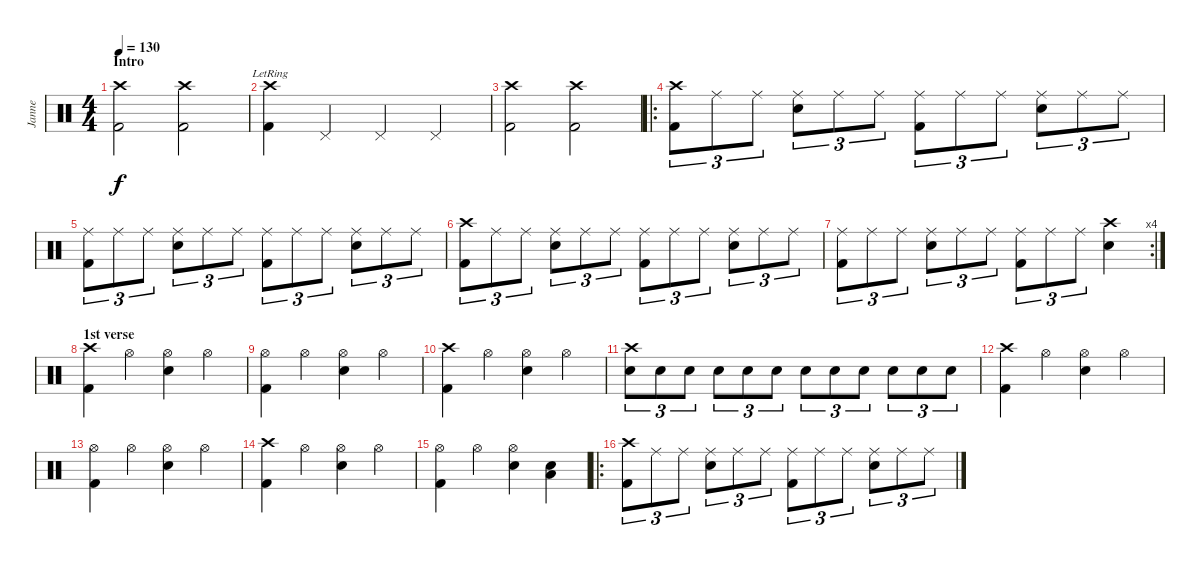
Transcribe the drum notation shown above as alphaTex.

\track ("Janne" "Janne") {instrument percussion}
\staff {score}
\articulation defaults
\ts (4 4)
\section ("" "Intro")
\tempo 130
\clef neutral
\ks c
("Crash high (hit)" "Kick (hit) 2").2{dy f} ("Crash high (hit)" "Kick (hit) 2").2 |
("Crash high (hit)"{lr} "Kick (hit) 2"{lr}).4 "Pedal Hi-Hat (hit)".4 "Pedal Hi-Hat (hit)".4 "Pedal Hi-Hat (hit)".4 |
("Crash high (hit)" "Kick (hit) 2").2 ("Crash high (hit)" "Kick (hit) 2").2 |
\ro
("Crash high (hit)" "Kick (hit) 2").8{tu (3 2)} "Ride (middle)".8{tu (3 2)} "Ride (middle)".8{tu (3 2)} ("Ride (middle)" "Electric Snare (hit)").8{tu (3 2)} "Ride (middle)".8{tu (3 2)} "Ride (middle)".8{tu (3 2)} ("Ride (middle)" "Kick (hit) 2").8{tu (3 2)} "Ride (middle)".8{tu (3 2)} "Ride (middle)".8{tu (3 2)} ("Ride (middle)" "Electric Snare (hit)").8{tu (3 2)} "Ride (middle)".8{tu (3 2)} "Ride (middle)".8{tu (3 2)} |
("Ride (middle)" "Kick (hit) 2").8{tu (3 2)} "Ride (middle)".8{tu (3 2)} "Ride (middle)".8{tu (3 2)} ("Ride (middle)" "Electric Snare (hit)").8{tu (3 2)} "Ride (middle)".8{tu (3 2)} "Ride (middle)".8{tu (3 2)} ("Ride (middle)" "Kick (hit) 2").8{tu (3 2)} "Ride (middle)".8{tu (3 2)} "Ride (middle)".8{tu (3 2)} ("Ride (middle)" "Electric Snare (hit)").8{tu (3 2)} "Ride (middle)".8{tu (3 2)} "Ride (middle)".8{tu (3 2)} |
("Crash high (hit)" "Kick (hit) 2").8{tu (3 2)} "Ride (middle)".8{tu (3 2)} "Ride (middle)".8{tu (3 2)} ("Ride (middle)" "Electric Snare (hit)").8{tu (3 2)} "Ride (middle)".8{tu (3 2)} "Ride (middle)".8{tu (3 2)} ("Ride (middle)" "Kick (hit) 2").8{tu (3 2)} "Ride (middle)".8{tu (3 2)} "Ride (middle)".8{tu (3 2)} ("Ride (middle)" "Electric Snare (hit)").8{tu (3 2)} "Ride (middle)".8{tu (3 2)} "Ride (middle)".8{tu (3 2)} |
\rc 4
("Ride (middle)" "Kick (hit) 2").8{tu (3 2)} "Ride (middle)".8{tu (3 2)} "Ride (middle)".8{tu (3 2)} ("Ride (middle)" "Electric Snare (hit)").8{tu (3 2)} "Ride (middle)".8{tu (3 2)} "Ride (middle)".8{tu (3 2)} ("Ride (middle)" "Kick (hit) 2").8{tu (3 2)} "Ride (middle)".8{tu (3 2)} "Ride (middle)".8{tu (3 2)} ("Crash high (hit)" "Electric Snare (hit)").4 |
\section ("" "1st verse")
("Crash high (hit)" "Kick (hit) 2").4 "Hi-Hat (open)".4 ("Hi-Hat (open)" "Electric Snare (hit)").4 "Hi-Hat (open)".4 |
("Hi-Hat (open)" "Kick (hit) 2").4 "Hi-Hat (open)".4 ("Hi-Hat (open)" "Electric Snare (hit)").4 "Hi-Hat (open)".4 |
("Crash high (hit)" "Kick (hit) 2").4 "Hi-Hat (open)".4 ("Hi-Hat (open)" "Electric Snare (hit)").4 "Hi-Hat (open)".4 |
("Crash high (hit)" "Electric Snare (hit)").8{tu (3 2)} "Electric Snare (hit)".8{tu (3 2)} "Electric Snare (hit)".8{tu (3 2)} "Electric Snare (hit)".8{tu (3 2)} "Electric Snare (hit)".8{tu (3 2)} "Electric Snare (hit)".8{tu (3 2)} "Electric Snare (hit)".8{tu (3 2)} "Electric Snare (hit)".8{tu (3 2)} "Electric Snare (hit)".8{tu (3 2)} "Electric Snare (hit)".8{tu (3 2)} "Electric Snare (hit)".8{tu (3 2)} "Electric Snare (hit)".8{tu (3 2)} |
("Crash high (hit)" "Kick (hit) 2").4 "Hi-Hat (open)".4 ("Hi-Hat (open)" "Electric Snare (hit)").4 "Hi-Hat (open)".4 |
("Hi-Hat (open)" "Kick (hit) 2").4 "Hi-Hat (open)".4 ("Hi-Hat (open)" "Electric Snare (hit)").4 "Hi-Hat (open)".4 |
("Crash high (hit)" "Kick (hit) 2").4 "Hi-Hat (open)".4 ("Hi-Hat (open)" "Electric Snare (hit)").4 "Hi-Hat (open)".4 |
("Hi-Hat (open)" "Kick (hit) 2").4 "Hi-Hat (open)".4 ("Hi-Hat (open)" "Electric Snare (hit)").4 ("Low Floor Tom (hit)" "Electric Snare (hit)").4 |
\ro
("Crash high (hit)" "Kick (hit) 2").8{tu (3 2)} "Ride (middle)".8{tu (3 2)} "Ride (middle)".8{tu (3 2)} ("Ride (middle)" "Electric Snare (hit)").8{tu (3 2)} "Ride (middle)".8{tu (3 2)} "Ride (middle)".8{tu (3 2)} ("Ride (middle)" "Kick (hit) 2").8{tu (3 2)} "Ride (middle)".8{tu (3 2)} "Ride (middle)".8{tu (3 2)} ("Ride (middle)" "Electric Snare (hit)").8{tu (3 2)} "Ride (middle)".8{tu (3 2)} "Ride (middle)".8{tu (3 2)}
